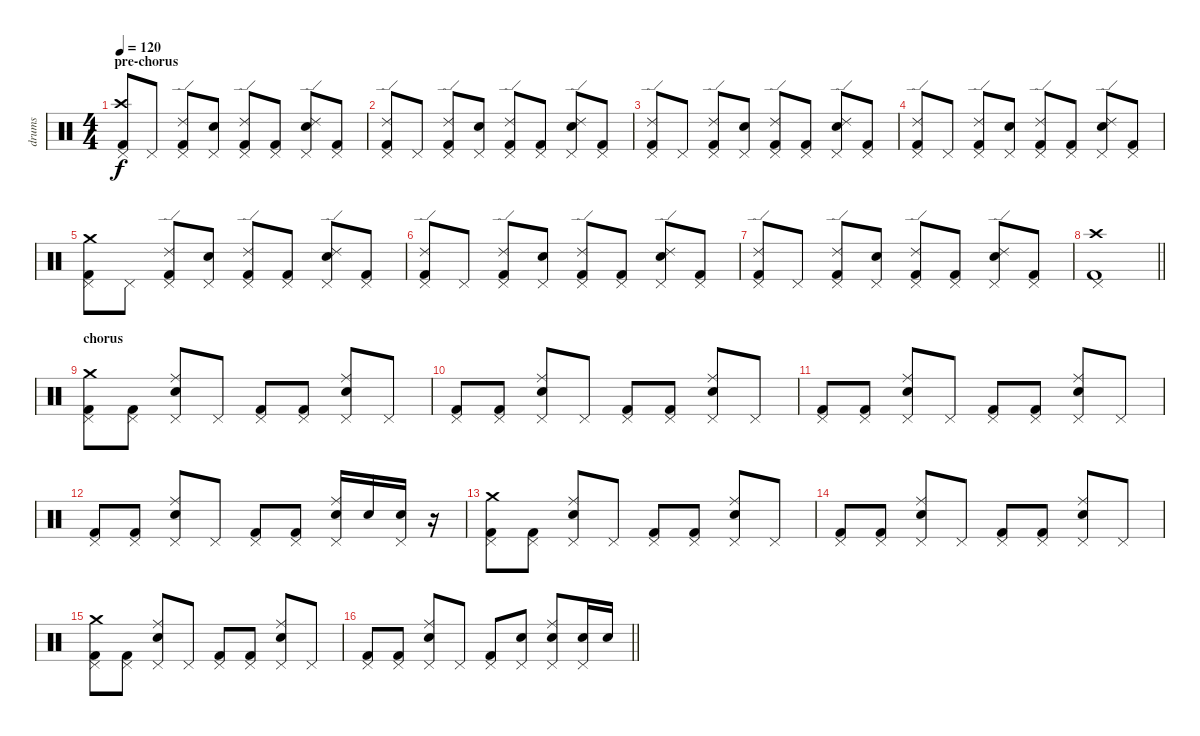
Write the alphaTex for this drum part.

\track ("drums" "drums") {instrument percussion}
\staff {score}
\articulation defaults
\ts (4 4)
\section ("" "pre-chorus")
\tempo 120
\clef neutral
\ks c
("Pedal Hi-Hat (hit)" "Crash high (hit)" "Kick (hit) 2").8{dy f} "Pedal Hi-Hat (hit)".8 ("Pedal Hi-Hat (hit)" "Ride (edge) 2" "Kick (hit) 2").8 ("Pedal Hi-Hat (hit)" "Snare (hit) 2").8 ("Pedal Hi-Hat (hit)" "Ride (edge) 2" "Kick (hit) 2").8 ("Pedal Hi-Hat (hit)" "Kick (hit) 2").8 ("Pedal Hi-Hat (hit)" "Ride (edge) 2" "Snare (hit) 2").8 ("Pedal Hi-Hat (hit)" "Kick (hit) 2").8 |
("Pedal Hi-Hat (hit)" "Ride (edge) 2" "Kick (hit) 2").8 "Pedal Hi-Hat (hit)".8 ("Pedal Hi-Hat (hit)" "Ride (edge) 2" "Kick (hit) 2").8 ("Pedal Hi-Hat (hit)" "Snare (hit) 2").8 ("Pedal Hi-Hat (hit)" "Ride (edge) 2" "Kick (hit) 2").8 ("Pedal Hi-Hat (hit)" "Kick (hit) 2").8 ("Pedal Hi-Hat (hit)" "Ride (edge) 2" "Snare (hit) 2").8 ("Pedal Hi-Hat (hit)" "Kick (hit) 2").8 |
("Pedal Hi-Hat (hit)" "Ride (edge) 2" "Kick (hit) 2").8 "Pedal Hi-Hat (hit)".8 ("Pedal Hi-Hat (hit)" "Ride (edge) 2" "Kick (hit) 2").8 ("Pedal Hi-Hat (hit)" "Snare (hit) 2").8 ("Pedal Hi-Hat (hit)" "Ride (edge) 2" "Kick (hit) 2").8 ("Pedal Hi-Hat (hit)" "Kick (hit) 2").8 ("Pedal Hi-Hat (hit)" "Ride (edge) 2" "Snare (hit) 2").8 ("Pedal Hi-Hat (hit)" "Kick (hit) 2").8 |
("Pedal Hi-Hat (hit)" "Ride (edge) 2" "Kick (hit) 2").8 "Pedal Hi-Hat (hit)".8 ("Pedal Hi-Hat (hit)" "Ride (edge) 2" "Kick (hit) 2").8 ("Pedal Hi-Hat (hit)" "Snare (hit) 2").8 ("Pedal Hi-Hat (hit)" "Ride (edge) 2" "Kick (hit) 2").8 ("Pedal Hi-Hat (hit)" "Kick (hit) 2").8 ("Pedal Hi-Hat (hit)" "Ride (edge) 2" "Snare (hit) 2").8 ("Pedal Hi-Hat (hit)" "Kick (hit) 2").8 |
("Pedal Hi-Hat (hit)" "Crash medium (hit)" "Kick (hit) 2").8 "Pedal Hi-Hat (hit)".8 ("Pedal Hi-Hat (hit)" "Ride (edge) 2" "Kick (hit) 2").8 ("Pedal Hi-Hat (hit)" "Snare (hit) 2").8 ("Pedal Hi-Hat (hit)" "Ride (edge) 2" "Kick (hit) 2").8 ("Pedal Hi-Hat (hit)" "Kick (hit) 2").8 ("Pedal Hi-Hat (hit)" "Ride (edge) 2" "Snare (hit) 2").8 ("Pedal Hi-Hat (hit)" "Kick (hit) 2").8 |
("Pedal Hi-Hat (hit)" "Ride (edge) 2" "Kick (hit) 2").8 "Pedal Hi-Hat (hit)".8 ("Pedal Hi-Hat (hit)" "Ride (edge) 2" "Kick (hit) 2").8 ("Pedal Hi-Hat (hit)" "Snare (hit) 2").8 ("Pedal Hi-Hat (hit)" "Ride (edge) 2" "Kick (hit) 2").8 ("Pedal Hi-Hat (hit)" "Kick (hit) 2").8 ("Pedal Hi-Hat (hit)" "Ride (edge) 2" "Snare (hit) 2").8 ("Pedal Hi-Hat (hit)" "Kick (hit) 2").8 |
("Pedal Hi-Hat (hit)" "Ride (edge) 2" "Kick (hit) 2").8 "Pedal Hi-Hat (hit)".8 ("Pedal Hi-Hat (hit)" "Ride (edge) 2" "Kick (hit) 2").8 ("Pedal Hi-Hat (hit)" "Snare (hit) 2").8 ("Pedal Hi-Hat (hit)" "Ride (edge) 2" "Kick (hit) 2").8 ("Pedal Hi-Hat (hit)" "Kick (hit) 2").8 ("Pedal Hi-Hat (hit)" "Ride (edge) 2" "Snare (hit) 2").8 ("Pedal Hi-Hat (hit)" "Kick (hit) 2").8 |
\barLineRight lightlight
("Pedal Hi-Hat (hit)" "Crash high (hit)" "Kick (hit) 2").1 |
\section ("" "chorus")
("Pedal Hi-Hat (hit)" "Crash medium (hit)" "Kick (hit) 2").8 ("Pedal Hi-Hat (hit)" "Kick (hit) 2").8 ("Pedal Hi-Hat (hit)" "Ride (middle)" "Snare (hit) 2").8 "Pedal Hi-Hat (hit)".8 ("Pedal Hi-Hat (hit)" "Kick (hit) 2").8 ("Pedal Hi-Hat (hit)" "Kick (hit) 2").8 ("Pedal Hi-Hat (hit)" "Ride (middle)" "Snare (hit) 2").8 "Pedal Hi-Hat (hit)".8 |
("Pedal Hi-Hat (hit)" "Kick (hit) 2").8 ("Pedal Hi-Hat (hit)" "Kick (hit) 2").8 ("Pedal Hi-Hat (hit)" "Ride (middle)" "Snare (hit) 2").8 "Pedal Hi-Hat (hit)".8 ("Pedal Hi-Hat (hit)" "Kick (hit) 2").8 ("Pedal Hi-Hat (hit)" "Kick (hit) 2").8 ("Pedal Hi-Hat (hit)" "Ride (middle)" "Snare (hit) 2").8 "Pedal Hi-Hat (hit)".8 |
("Pedal Hi-Hat (hit)" "Kick (hit) 2").8 ("Pedal Hi-Hat (hit)" "Kick (hit) 2").8 ("Pedal Hi-Hat (hit)" "Ride (middle)" "Snare (hit) 2").8 "Pedal Hi-Hat (hit)".8 ("Pedal Hi-Hat (hit)" "Kick (hit) 2").8 ("Pedal Hi-Hat (hit)" "Kick (hit) 2").8 ("Pedal Hi-Hat (hit)" "Ride (middle)" "Snare (hit) 2").8 "Pedal Hi-Hat (hit)".8 |
("Pedal Hi-Hat (hit)" "Kick (hit) 2").8 ("Pedal Hi-Hat (hit)" "Kick (hit) 2").8 ("Pedal Hi-Hat (hit)" "Ride (middle)" "Snare (hit) 2").8 "Pedal Hi-Hat (hit)".8 ("Pedal Hi-Hat (hit)" "Kick (hit) 2").8 ("Pedal Hi-Hat (hit)" "Kick (hit) 2").8 ("Pedal Hi-Hat (hit)" "Ride (middle)" "Snare (hit) 2").16 "Snare (hit) 2".16 ("Pedal Hi-Hat (hit)" "Snare (hit) 2").16 r.16 |
("Pedal Hi-Hat (hit)" "Crash medium (hit)" "Kick (hit) 2").8 ("Pedal Hi-Hat (hit)" "Kick (hit) 2").8 ("Pedal Hi-Hat (hit)" "Ride (middle)" "Snare (hit) 2").8 "Pedal Hi-Hat (hit)".8 ("Pedal Hi-Hat (hit)" "Kick (hit) 2").8 ("Pedal Hi-Hat (hit)" "Kick (hit) 2").8 ("Pedal Hi-Hat (hit)" "Ride (middle)" "Snare (hit) 2").8 "Pedal Hi-Hat (hit)".8 |
("Pedal Hi-Hat (hit)" "Kick (hit) 2").8 ("Pedal Hi-Hat (hit)" "Kick (hit) 2").8 ("Pedal Hi-Hat (hit)" "Ride (middle)" "Snare (hit) 2").8 "Pedal Hi-Hat (hit)".8 ("Pedal Hi-Hat (hit)" "Kick (hit) 2").8 ("Pedal Hi-Hat (hit)" "Kick (hit) 2").8 ("Pedal Hi-Hat (hit)" "Ride (middle)" "Snare (hit) 2").8 "Pedal Hi-Hat (hit)".8 |
("Pedal Hi-Hat (hit)" "Crash medium (hit)" "Kick (hit) 2").8 ("Pedal Hi-Hat (hit)" "Kick (hit) 2").8 ("Pedal Hi-Hat (hit)" "Ride (middle)" "Snare (hit) 2").8 "Pedal Hi-Hat (hit)".8 ("Pedal Hi-Hat (hit)" "Kick (hit) 2").8 ("Pedal Hi-Hat (hit)" "Kick (hit) 2").8 ("Pedal Hi-Hat (hit)" "Ride (middle)" "Snare (hit) 2").8 "Pedal Hi-Hat (hit)".8 |
\barLineRight lightlight
("Pedal Hi-Hat (hit)" "Kick (hit) 2").8 ("Pedal Hi-Hat (hit)" "Kick (hit) 2").8 ("Pedal Hi-Hat (hit)" "Ride (middle)" "Snare (hit) 2").8 "Pedal Hi-Hat (hit)".8 ("Pedal Hi-Hat (hit)" "Kick (hit) 2").8 ("Pedal Hi-Hat (hit)" "Snare (hit) 2").8 ("Pedal Hi-Hat (hit)" "Ride (middle)" "Snare (hit) 2").8 ("Pedal Hi-Hat (hit)" "Snare (hit) 2").16 "Snare (hit) 2".16
